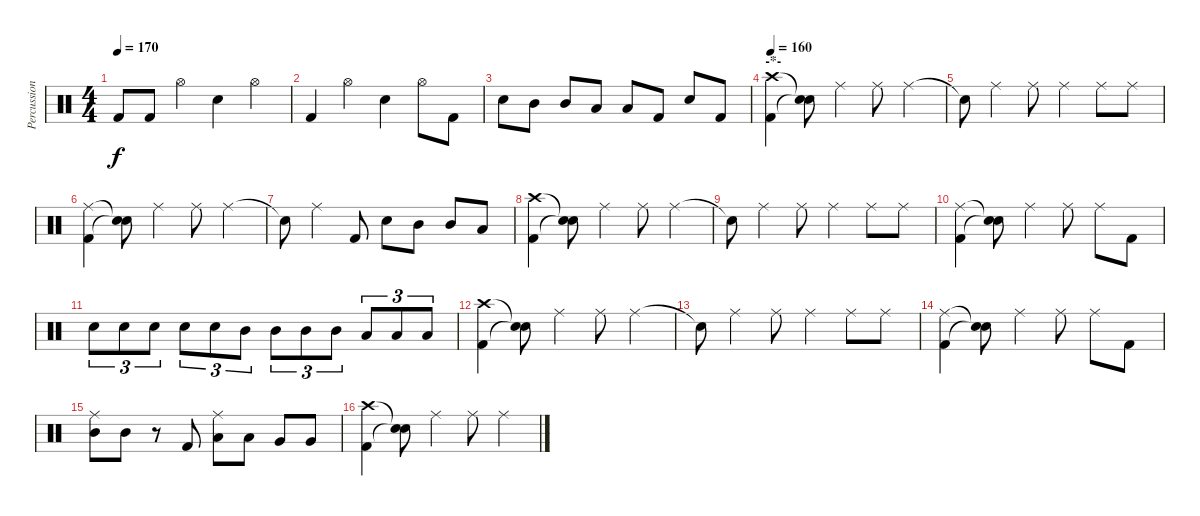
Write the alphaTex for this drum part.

\track ("Percussion" "Percussion") {instrument percussion}
\staff {score}
\articulation defaults
\ts (4 4)
\tempo 170
\clef neutral
\ks c "Kick (hit) 2".8{dy f} "Kick (hit) 2".8 "Hi-Hat (open)".4 "Electric Snare (hit)".4 "Hi-Hat (open)".4
|
"Kick (hit) 2".4 "Hi-Hat (open)".4 "Electric Snare (hit)".4 "Hi-Hat (open)".8 "Kick (hit) 2".8 |
"Electric Snare (hit)".8 "Mid Tom (hit)".8 "Mid Tom (hit)".8 "Low Tom (hit)".8 "Low Tom (hit)".8 "Kick (hit) 2".8 "Electric Snare (hit)".8 "Kick (hit) 2".8 |
\section ("" "-*-")
\tempo 160
("Crash high (hit)" "Kick (hit) 2").4 ("Snare (hit)"{t} "Snare (hit)"{t}).8 "Ride (middle)".4 "Ride (middle)".8 "Ride (middle)".4 |
"Snare (hit)"{t}.8 "Ride (middle)".4 "Ride (middle)".8 "Ride (middle)".4 "Ride (middle)".8 "Ride (middle)".8 |
("Ride (middle)" "Kick (hit) 2").4 ("Snare (hit)"{t} "Snare (hit)"{t}).8 "Ride (middle)".4 "Ride (middle)".8 "Ride (middle)".4 |
"Snare (hit)"{t}.8 "Ride (middle)".4 "Kick (hit) 2".8 "Electric Snare (hit)".8 "Mid Tom (hit)".8 "Mid Tom (hit)".8 "Low Tom (hit)".8 |
("Crash high (hit)" "Kick (hit) 2").4 ("Snare (hit)"{t} "Snare (hit)"{t}).8 "Ride (middle)".4 "Ride (middle)".8 "Ride (middle)".4 |
"Snare (hit)"{t}.8 "Ride (middle)".4 "Ride (middle)".8 "Ride (middle)".4 "Ride (middle)".8 "Ride (middle)".8 |
("Ride (middle)" "Kick (hit) 2").4 ("Snare (hit)"{t} "Snare (hit)"{t}).8 "Ride (middle)".4 "Ride (middle)".8 "Ride (middle)".8 "Kick (hit) 2".8 |
"Electric Snare (hit)".8{tu (3 2)} "Electric Snare (hit)".8{tu (3 2)} "Electric Snare (hit)".8{tu (3 2)} "Electric Snare (hit)".8{tu (3 2)} "Electric Snare (hit)".8{tu (3 2)} "Mid Tom (hit)".8{tu (3 2)} "Mid Tom (hit)".8{tu (3 2)} "Mid Tom (hit)".8{tu (3 2)} "Mid Tom (hit)".8{tu (3 2)} "Low Tom (hit)".8{tu (3 2)} "Low Tom (hit)".8{tu (3 2)} "Low Tom (hit)".8{tu (3 2)} |
("Crash high (hit)" "Kick (hit) 2").4 ("Snare (hit)"{t} "Snare (hit)"{t}).8 "Ride (middle)".4 "Ride (middle)".8 "Ride (middle)".4 |
"Snare (hit)"{t}.8 "Ride (middle)".4 "Ride (middle)".8 "Ride (middle)".4 "Ride (middle)".8 "Ride (middle)".8 |
("Ride (middle)" "Kick (hit) 2").4 ("Snare (hit)"{t} "Snare (hit)"{t}).8 "Ride (middle)".4 "Ride (middle)".8 "Ride (middle)".8 "Kick (hit) 2".8 |
("Ride (middle)" "Mid Tom (hit)").8 "Mid Tom (hit)".8 r.8 "Kick (hit) 2".8 ("Ride (middle)" "Low Tom (hit)").8 "Low Tom (hit)".8 "Very Low Tom (hit)".8 "Very Low Tom (hit)".8 |
("Crash high (hit)" "Kick (hit) 2").4 ("Snare (hit)"{t} "Snare (hit)"{t}).8 "Ride (middle)".4 "Ride (middle)".8 "Ride (middle)".4
